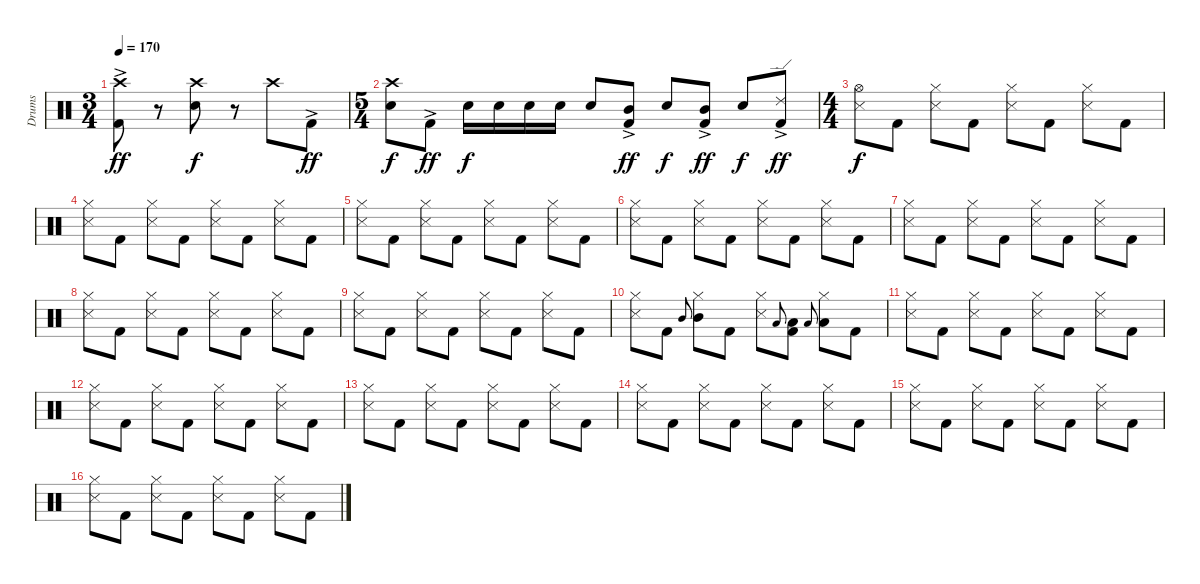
\track ("Drums" "Drums") {instrument percussion}
\staff {score}
\articulation defaults
\ts (3 4)
\tempo 170
\clef neutral
\ks c
("Crash high (hit)" "Kick (hit) 2"{ac}).8{dy ff} r.8 ("Crash high (hit)" "Electric Snare (hit)").8{dy f} r.8 "Crash high (hit)".8 "Kick (hit) 2"{ac}.8{dy ff} |
\ts (5 4)
("Crash high (hit)" "Electric Snare (hit)").8{dy f} "Kick (hit) 2"{ac}.8{dy ff} "Electric Snare (hit)".16{dy f} "Electric Snare (hit)".16 "Electric Snare (hit)".16 "Electric Snare (hit)".16 "Electric Snare (hit)".8 ("Mid Tom (hit)" "Kick (hit) 2"{ac}).8{dy ff} "Electric Snare (hit)".8{dy f} ("Mid Tom (hit)" "Kick (hit) 2"{ac}).8{dy ff} "Electric Snare (hit)".8{dy f} ("Ride (edge) 2"{ac} "Kick (hit) 2"{ac}).8{dy ff} |
\ts (4 4)
("Snare (side stick) 3" "Hi-Hat (open)").8{dy f} "Kick (hit) 2".8 ("Snare (side stick) 3" "Hi-Hat (closed)").8 "Kick (hit) 2".8 ("Snare (side stick) 3" "Hi-Hat (closed)").8 "Kick (hit) 2".8 ("Snare (side stick) 3" "Hi-Hat (closed)").8 "Kick (hit) 2".8 |
("Snare (side stick) 3" "Hi-Hat (closed)").8 "Kick (hit) 2".8 ("Snare (side stick) 3" "Hi-Hat (closed)").8 "Kick (hit) 2".8 ("Snare (side stick) 3" "Hi-Hat (closed)").8 "Kick (hit) 2".8 ("Snare (side stick) 3" "Hi-Hat (closed)").8 "Kick (hit) 2".8 |
("Snare (side stick) 3" "Hi-Hat (closed)").8 "Kick (hit) 2".8 ("Snare (side stick) 3" "Hi-Hat (closed)").8 "Kick (hit) 2".8 ("Snare (side stick) 3" "Hi-Hat (closed)").8 "Kick (hit) 2".8 ("Snare (side stick) 3" "Hi-Hat (closed)").8 "Kick (hit) 2".8 |
("Snare (side stick) 3" "Hi-Hat (closed)").8 "Kick (hit) 2".8 ("Snare (side stick) 3" "Hi-Hat (closed)").8 "Kick (hit) 2".8 ("Snare (side stick) 3" "Hi-Hat (closed)").8 "Kick (hit) 2".8 ("Snare (side stick) 3" "Hi-Hat (closed)").8 "Kick (hit) 2".8 |
("Snare (side stick) 3" "Hi-Hat (closed)").8 "Kick (hit) 2".8 ("Snare (side stick) 3" "Hi-Hat (closed)").8 "Kick (hit) 2".8 ("Snare (side stick) 3" "Hi-Hat (closed)").8 "Kick (hit) 2".8 ("Snare (side stick) 3" "Hi-Hat (closed)").8 "Kick (hit) 2".8 |
("Snare (side stick) 3" "Hi-Hat (closed)").8 "Kick (hit) 2".8 ("Snare (side stick) 3" "Hi-Hat (closed)").8 "Kick (hit) 2".8 ("Snare (side stick) 3" "Hi-Hat (closed)").8 "Kick (hit) 2".8 ("Snare (side stick) 3" "Hi-Hat (closed)").8 "Kick (hit) 2".8 |
("Snare (side stick) 3" "Hi-Hat (closed)").8 "Kick (hit) 2".8 ("Snare (side stick) 3" "Hi-Hat (closed)").8 "Kick (hit) 2".8 ("Snare (side stick) 3" "Hi-Hat (closed)").8 "Kick (hit) 2".8 ("Snare (side stick) 3" "Hi-Hat (closed)").8 "Kick (hit) 2".8 |
("Snare (side stick) 3" "Hi-Hat (closed)").8 "Kick (hit) 2".8 "Mid Tom (hit)".8{gr onbeat} ("Mid Tom (hit)" "Hi-Hat (closed)").8 "Kick (hit) 2".8 ("Snare (side stick) 3" "Hi-Hat (closed)").8 "Low Tom (hit)".8{gr onbeat} ("Low Tom (hit)" "Kick (hit) 2").8 "Low Tom (hit)".8{gr onbeat} ("Low Tom (hit)" "Hi-Hat (closed)").8 "Kick (hit) 2".8 |
("Snare (side stick) 3" "Hi-Hat (closed)").8 "Kick (hit) 2".8 ("Snare (side stick) 3" "Hi-Hat (closed)").8 "Kick (hit) 2".8 ("Snare (side stick) 3" "Hi-Hat (closed)").8 "Kick (hit) 2".8 ("Snare (side stick) 3" "Hi-Hat (closed)").8 "Kick (hit) 2".8 |
("Snare (side stick) 3" "Hi-Hat (closed)").8 "Kick (hit) 2".8 ("Snare (side stick) 3" "Hi-Hat (closed)").8 "Kick (hit) 2".8 ("Snare (side stick) 3" "Hi-Hat (closed)").8 "Kick (hit) 2".8 ("Snare (side stick) 3" "Hi-Hat (closed)").8 "Kick (hit) 2".8 |
("Snare (side stick) 3" "Hi-Hat (closed)").8 "Kick (hit) 2".8 ("Snare (side stick) 3" "Hi-Hat (closed)").8 "Kick (hit) 2".8 ("Snare (side stick) 3" "Hi-Hat (closed)").8 "Kick (hit) 2".8 ("Snare (side stick) 3" "Hi-Hat (closed)").8 "Kick (hit) 2".8 |
("Snare (side stick) 3" "Hi-Hat (closed)").8 "Kick (hit) 2".8 ("Snare (side stick) 3" "Hi-Hat (closed)").8 "Kick (hit) 2".8 ("Snare (side stick) 3" "Hi-Hat (closed)").8 "Kick (hit) 2".8 ("Snare (side stick) 3" "Hi-Hat (closed)").8 "Kick (hit) 2".8 |
("Snare (side stick) 3" "Hi-Hat (closed)").8 "Kick (hit) 2".8 ("Snare (side stick) 3" "Hi-Hat (closed)").8 "Kick (hit) 2".8 ("Snare (side stick) 3" "Hi-Hat (closed)").8 "Kick (hit) 2".8 ("Snare (side stick) 3" "Hi-Hat (closed)").8 "Kick (hit) 2".8 |
("Snare (side stick) 3" "Hi-Hat (closed)").8 "Kick (hit) 2".8 ("Snare (side stick) 3" "Hi-Hat (closed)").8 "Kick (hit) 2".8 ("Snare (side stick) 3" "Hi-Hat (closed)").8 "Kick (hit) 2".8 ("Snare (side stick) 3" "Hi-Hat (closed)").8 "Kick (hit) 2".8
